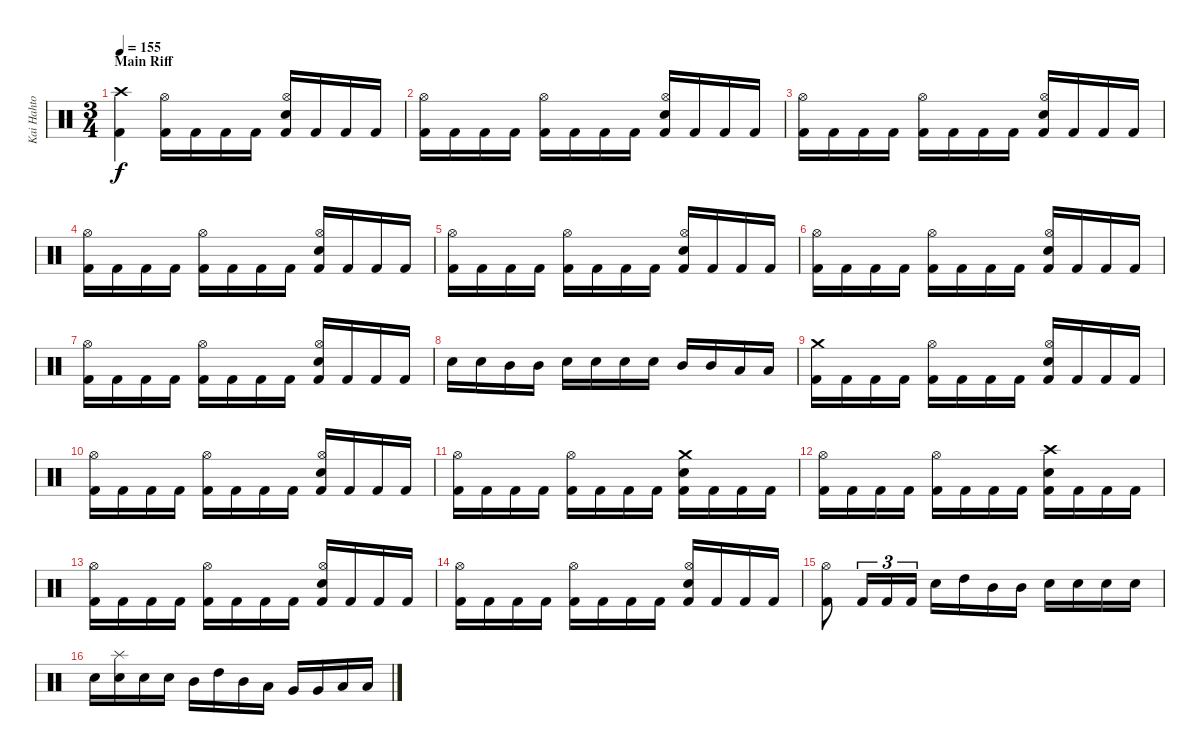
\track ("Kai Hahto" "Kai Hahto") {instrument percussion}
\staff {score}
\articulation defaults
\ts (3 4)
\section ("" "Main Riff")
\tempo 155
\clef neutral
\ks c
("Crash high (hit)" "Kick (hit) 2").4{dy f} ("Hi-Hat (open)" "Kick (hit) 2").16 "Kick (hit) 2".16 "Kick (hit) 2".16 "Kick (hit) 2".16 ("Hi-Hat (open)" "Electric Snare (hit)" "Kick (hit) 2").16 "Kick (hit) 2".16 "Kick (hit) 2".16 "Kick (hit) 2".16 |
("Hi-Hat (open)" "Kick (hit) 2").16 "Kick (hit) 2".16 "Kick (hit) 2".16 "Kick (hit) 2".16 ("Hi-Hat (open)" "Kick (hit) 2").16 "Kick (hit) 2".16 "Kick (hit) 2".16 "Kick (hit) 2".16 ("Hi-Hat (open)" "Electric Snare (hit)" "Kick (hit) 2").16 "Kick (hit) 2".16 "Kick (hit) 2".16 "Kick (hit) 2".16 |
("Hi-Hat (open)" "Kick (hit) 2").16 "Kick (hit) 2".16 "Kick (hit) 2".16 "Kick (hit) 2".16 ("Hi-Hat (open)" "Kick (hit) 2").16 "Kick (hit) 2".16 "Kick (hit) 2".16 "Kick (hit) 2".16 ("Hi-Hat (open)" "Electric Snare (hit)" "Kick (hit) 2").16 "Kick (hit) 2".16 "Kick (hit) 2".16 "Kick (hit) 2".16 |
("Hi-Hat (open)" "Kick (hit) 2").16 "Kick (hit) 2".16 "Kick (hit) 2".16 "Kick (hit) 2".16 ("Hi-Hat (open)" "Kick (hit) 2").16 "Kick (hit) 2".16 "Kick (hit) 2".16 "Kick (hit) 2".16 ("Hi-Hat (open)" "Electric Snare (hit)" "Kick (hit) 2").16 "Kick (hit) 2".16 "Kick (hit) 2".16 "Kick (hit) 2".16 |
("Hi-Hat (open)" "Kick (hit) 2").16 "Kick (hit) 2".16 "Kick (hit) 2".16 "Kick (hit) 2".16 ("Hi-Hat (open)" "Kick (hit) 2").16 "Kick (hit) 2".16 "Kick (hit) 2".16 "Kick (hit) 2".16 ("Hi-Hat (open)" "Electric Snare (hit)" "Kick (hit) 2").16 "Kick (hit) 2".16 "Kick (hit) 2".16 "Kick (hit) 2".16 |
("Hi-Hat (open)" "Kick (hit) 2").16 "Kick (hit) 2".16 "Kick (hit) 2".16 "Kick (hit) 2".16 ("Hi-Hat (open)" "Kick (hit) 2").16 "Kick (hit) 2".16 "Kick (hit) 2".16 "Kick (hit) 2".16 ("Hi-Hat (open)" "Electric Snare (hit)" "Kick (hit) 2").16 "Kick (hit) 2".16 "Kick (hit) 2".16 "Kick (hit) 2".16 |
("Hi-Hat (open)" "Kick (hit) 2").16 "Kick (hit) 2".16 "Kick (hit) 2".16 "Kick (hit) 2".16 ("Hi-Hat (open)" "Kick (hit) 2").16 "Kick (hit) 2".16 "Kick (hit) 2".16 "Kick (hit) 2".16 ("Hi-Hat (open)" "Electric Snare (hit)" "Kick (hit) 2").16 "Kick (hit) 2".16 "Kick (hit) 2".16 "Kick (hit) 2".16 |
"Electric Snare (hit)".16 "Electric Snare (hit)".16 "Mid Tom (hit)".16 "Mid Tom (hit)".16 "Electric Snare (hit)".16 "Electric Snare (hit)".16 "Electric Snare (hit)".16 "Electric Snare (hit)".16 "Mid Tom (hit)".16 "Mid Tom (hit)".16 "Low Tom (hit)".16 "Low Tom (hit)".16 |
("Crash medium (hit)" "Kick (hit) 2").16 "Kick (hit) 2".16 "Kick (hit) 2".16 "Kick (hit) 2".16 ("Hi-Hat (open)" "Kick (hit) 2").16 "Kick (hit) 2".16 "Kick (hit) 2".16 "Kick (hit) 2".16 ("Hi-Hat (open)" "Electric Snare (hit)" "Kick (hit) 2").16 "Kick (hit) 2".16 "Kick (hit) 2".16 "Kick (hit) 2".16 |
("Hi-Hat (open)" "Kick (hit) 2").16 "Kick (hit) 2".16 "Kick (hit) 2".16 "Kick (hit) 2".16 ("Hi-Hat (open)" "Kick (hit) 2").16 "Kick (hit) 2".16 "Kick (hit) 2".16 "Kick (hit) 2".16 ("Hi-Hat (open)" "Electric Snare (hit)" "Kick (hit) 2").16 "Kick (hit) 2".16 "Kick (hit) 2".16 "Kick (hit) 2".16 |
("Hi-Hat (open)" "Kick (hit) 2").16 "Kick (hit) 2".16 "Kick (hit) 2".16 "Kick (hit) 2".16 ("Hi-Hat (open)" "Kick (hit) 2").16 "Kick (hit) 2".16 "Kick (hit) 2".16 "Kick (hit) 2".16 ("Crash medium (hit)" "Electric Snare (hit)" "Kick (hit) 2").16 "Kick (hit) 2".16 "Kick (hit) 2".16 "Kick (hit) 2".16 |
("Hi-Hat (open)" "Kick (hit) 2").16 "Kick (hit) 2".16 "Kick (hit) 2".16 "Kick (hit) 2".16 ("Hi-Hat (open)" "Kick (hit) 2").16 "Kick (hit) 2".16 "Kick (hit) 2".16 "Kick (hit) 2".16 ("Crash high (hit)" "Electric Snare (hit)" "Kick (hit) 2").16 "Kick (hit) 2".16 "Kick (hit) 2".16 "Kick (hit) 2".16 |
("Hi-Hat (open)" "Kick (hit) 2").16 "Kick (hit) 2".16 "Kick (hit) 2".16 "Kick (hit) 2".16 ("Hi-Hat (open)" "Kick (hit) 2").16 "Kick (hit) 2".16 "Kick (hit) 2".16 "Kick (hit) 2".16 ("Hi-Hat (open)" "Electric Snare (hit)" "Kick (hit) 2").16 "Kick (hit) 2".16 "Kick (hit) 2".16 "Kick (hit) 2".16 |
("Hi-Hat (open)" "Kick (hit) 2").16 "Kick (hit) 2".16 "Kick (hit) 2".16 "Kick (hit) 2".16 ("Hi-Hat (open)" "Kick (hit) 2").16 "Kick (hit) 2".16 "Kick (hit) 2".16 "Kick (hit) 2".16 ("Hi-Hat (open)" "Electric Snare (hit)" "Kick (hit) 2").16 "Kick (hit) 2".16 "Kick (hit) 2".16 "Kick (hit) 2".16 |
("Hi-Hat (open)" "Kick (hit) 2").8 "Kick (hit) 2".16{tu (3 2)} "Kick (hit) 2".16{tu (3 2)} "Kick (hit) 2".16{tu (3 2)} "Electric Snare (hit)".16 "High Tom (hit)".16 "Mid Tom (hit)".16 "Mid Tom (hit)".16 "Electric Snare (hit)".16 "Electric Snare (hit)".16 "Electric Snare (hit)".16 "Electric Snare (hit)".16 |
"Electric Snare (hit)".16 ("Splash (hit)" "Electric Snare (hit)").16 "Electric Snare (hit)".16 "Electric Snare (hit)".16 "Mid Tom (hit)".16 "High Tom (hit)".16 "Mid Tom (hit)".16 "Low Tom (hit)".16 "Very Low Tom (hit)".16 "Very Low Tom (hit)".16 "Low Floor Tom (hit)".16 "Low Floor Tom (hit)".16
